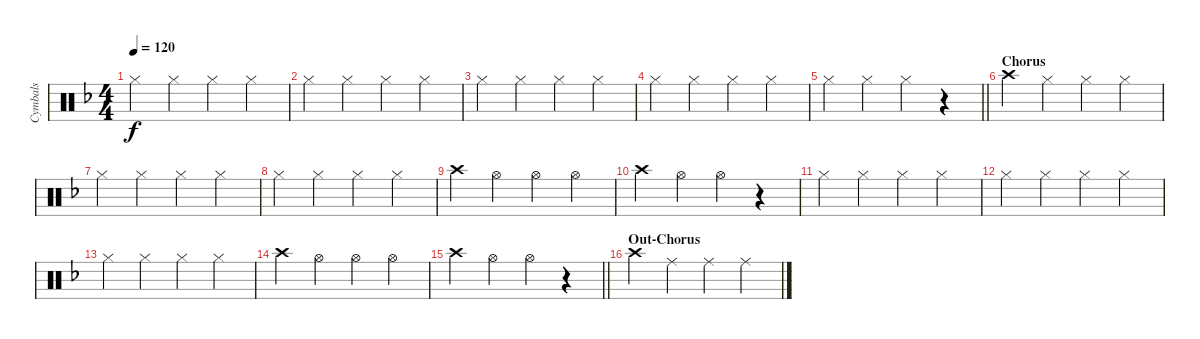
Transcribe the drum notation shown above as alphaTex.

\track ("Cymbals" "Cymbals") {instrument percussion}
\staff {score}
\articulation defaults
\ts (4 4)
\tempo 120
\clef neutral
\ks f "Hi-Hat (closed)".4{dy f} "Hi-Hat (closed)".4 "Hi-Hat (closed)".4 "Hi-Hat (closed)".4
|
"Hi-Hat (closed)".4 "Hi-Hat (closed)".4 "Hi-Hat (closed)".4 "Hi-Hat (closed)".4 |
"Hi-Hat (closed)".4 "Hi-Hat (closed)".4 "Hi-Hat (closed)".4 "Hi-Hat (closed)".4 |
"Hi-Hat (closed)".4 "Hi-Hat (closed)".4 "Hi-Hat (closed)".4 "Hi-Hat (closed)".4 |
\barLineRight lightlight "Hi-Hat (closed)".4 "Hi-Hat (closed)".4 "Hi-Hat (closed)".4
r.4 |
\section ("" "Chorus")
"Crash high (hit)".4 "Hi-Hat (closed)".4 "Hi-Hat (closed)".4 "Hi-Hat (closed)".4 |
"Hi-Hat (closed)".4 "Hi-Hat (closed)".4 "Hi-Hat (closed)".4 "Hi-Hat (closed)".4 |
"Hi-Hat (closed)".4 "Hi-Hat (closed)".4 "Hi-Hat (closed)".4 "Hi-Hat (closed)".4 |
"Crash high (hit)".4 "Hi-Hat (open)".4 "Hi-Hat (open)".4 "Hi-Hat (open)".4 |
"Crash high (hit)".4 "Hi-Hat (open)".4 "Hi-Hat (open)".4 r.4 |
"Hi-Hat (closed)".4 "Hi-Hat (closed)".4 "Hi-Hat (closed)".4 "Hi-Hat (closed)".4 |
"Hi-Hat (closed)".4 "Hi-Hat (closed)".4 "Hi-Hat (closed)".4 "Hi-Hat (closed)".4 |
"Hi-Hat (closed)".4 "Hi-Hat (closed)".4 "Hi-Hat (closed)".4 "Hi-Hat (closed)".4 |
"Crash high (hit)".4 "Hi-Hat (open)".4 "Hi-Hat (open)".4 "Hi-Hat (open)".4 |
\barLineRight lightlight "Crash high (hit)".4 "Hi-Hat (open)".4 "Hi-Hat (open)".4
r.4 |
\section ("" "Out-Chorus")
"Crash high (hit)".4 "Ride (middle)".4 "Ride (middle)".4 "Ride (middle)".4
